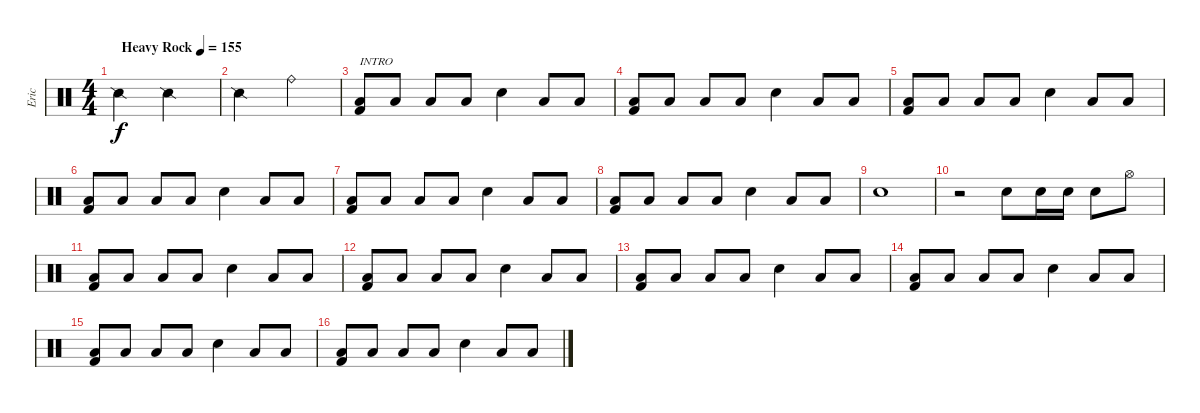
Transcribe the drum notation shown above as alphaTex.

\track ("Eric" "Eric") {instrument percussion}
\staff {score}
\articulation defaults
\ts (4 4)
\tempo (155 "Heavy Rock")
\clef neutral
\ks c "Snare (side stick) 2".2{dy f} "Snare (side stick) 2".2
|
"Snare (side stick) 2".2 "Ride (bell)".2 |
("Low Floor Tom (hit)" "Kick (hit) 2").8{txt "INTRO"} "Low Floor Tom (hit)".8 "Low Floor Tom (hit)".8 "Low Floor Tom (hit)".8 "Electric Snare (hit)".4 "Low Floor Tom (hit)".8 "Low Floor Tom (hit)".8 |
("Low Floor Tom (hit)" "Kick (hit) 2").8 "Low Floor Tom (hit)".8 "Low Floor Tom (hit)".8 "Low Floor Tom (hit)".8 "Electric Snare (hit)".4 "Low Floor Tom (hit)".8 "Low Floor Tom (hit)".8 |
("Low Floor Tom (hit)" "Kick (hit) 2").8 "Low Floor Tom (hit)".8 "Low Floor Tom (hit)".8 "Low Floor Tom (hit)".8 "Electric Snare (hit)".4 "Low Floor Tom (hit)".8 "Low Floor Tom (hit)".8 |
("Low Floor Tom (hit)" "Kick (hit) 2").8 "Low Floor Tom (hit)".8 "Low Floor Tom (hit)".8 "Low Floor Tom (hit)".8 "Electric Snare (hit)".4 "Low Floor Tom (hit)".8 "Low Floor Tom (hit)".8 |
("Low Floor Tom (hit)" "Kick (hit) 2").8 "Low Floor Tom (hit)".8 "Low Floor Tom (hit)".8 "Low Floor Tom (hit)".8 "Electric Snare (hit)".4 "Low Floor Tom (hit)".8 "Low Floor Tom (hit)".8 |
("Low Floor Tom (hit)" "Kick (hit) 2").8 "Low Floor Tom (hit)".8 "Low Floor Tom (hit)".8 "Low Floor Tom (hit)".8 "Electric Snare (hit)".4 "Low Floor Tom (hit)".8 "Low Floor Tom (hit)".8 |
"Electric Snare (hit)".1 |
r.2 "Electric Snare (hit)".8 "Electric Snare (hit)".16 "Electric Snare (hit)".16 "Electric Snare (hit)".8 "Hi-Hat (open)".8 |
("Low Floor Tom (hit)" "Kick (hit) 2").8 "Low Floor Tom (hit)".8 "Low Floor Tom (hit)".8 "Low Floor Tom (hit)".8 "Electric Snare (hit)".4 "Low Floor Tom (hit)".8 "Low Floor Tom (hit)".8 |
("Low Floor Tom (hit)" "Kick (hit) 2").8 "Low Floor Tom (hit)".8 "Low Floor Tom (hit)".8 "Low Floor Tom (hit)".8 "Electric Snare (hit)".4 "Low Floor Tom (hit)".8 "Low Floor Tom (hit)".8 |
("Low Floor Tom (hit)" "Kick (hit) 2").8 "Low Floor Tom (hit)".8 "Low Floor Tom (hit)".8 "Low Floor Tom (hit)".8 "Electric Snare (hit)".4 "Low Floor Tom (hit)".8 "Low Floor Tom (hit)".8 |
("Low Floor Tom (hit)" "Kick (hit) 2").8 "Low Floor Tom (hit)".8 "Low Floor Tom (hit)".8 "Low Floor Tom (hit)".8 "Electric Snare (hit)".4 "Low Floor Tom (hit)".8 "Low Floor Tom (hit)".8 |
("Low Floor Tom (hit)" "Kick (hit) 2").8 "Low Floor Tom (hit)".8 "Low Floor Tom (hit)".8 "Low Floor Tom (hit)".8 "Electric Snare (hit)".4 "Low Floor Tom (hit)".8 "Low Floor Tom (hit)".8 |
("Low Floor Tom (hit)" "Kick (hit) 2").8 "Low Floor Tom (hit)".8 "Low Floor Tom (hit)".8 "Low Floor Tom (hit)".8 "Electric Snare (hit)".4 "Low Floor Tom (hit)".8 "Low Floor Tom (hit)".8
